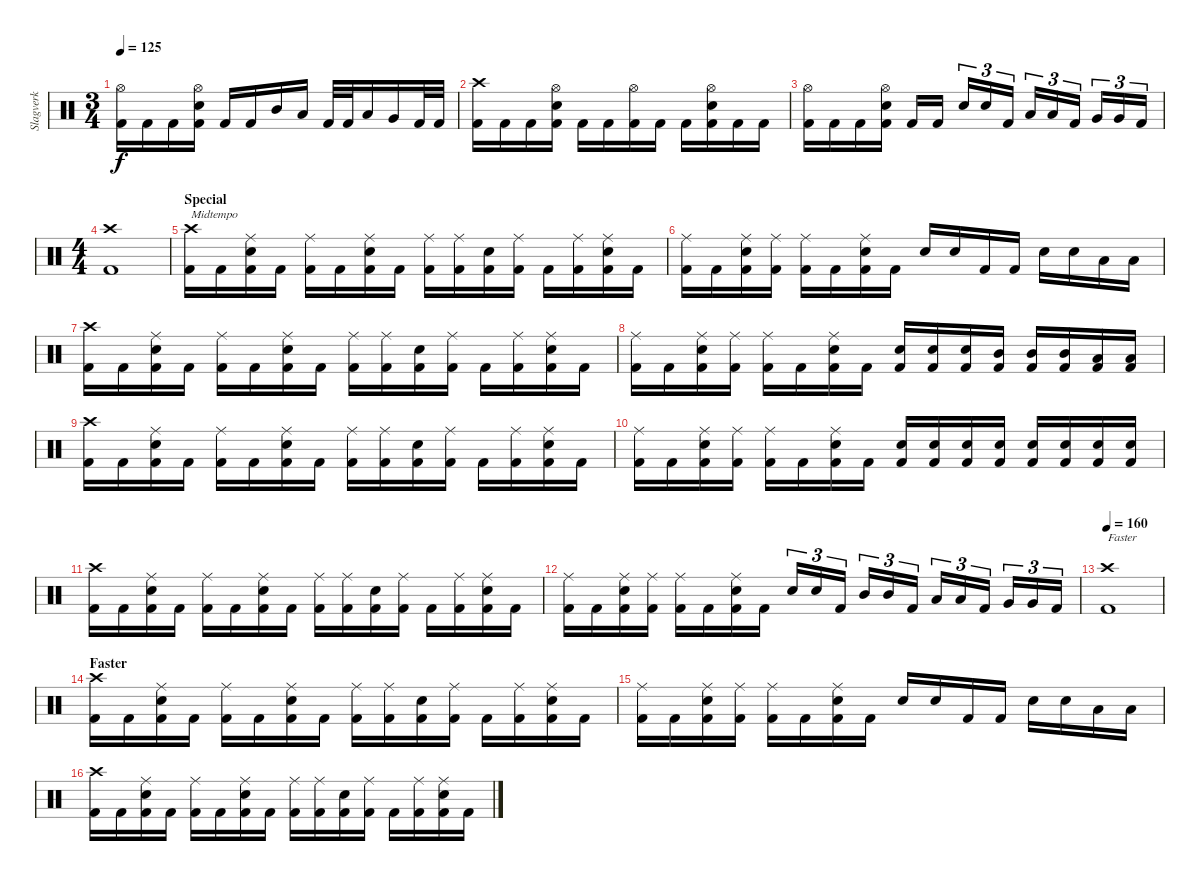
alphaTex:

\track ("Slagverk" "Slagverk") {instrument percussion}
\staff {score}
\articulation defaults
\ts (3 4)
\tempo 125
\clef neutral
\ks c
("Hi-Hat (open)" "Kick (hit) 2").16{dy f} "Kick (hit) 2".16 "Kick (hit) 2".16 ("Hi-Hat (open)" "Snare (hit) 2" "Kick (hit) 2").16 "Kick (hit) 2".16 "Kick (hit) 2".16 "Mid Tom (hit)".16 "Low Tom (hit)".16 "Kick (hit) 2".32 "Kick (hit) 2".32 "Low Tom (hit)".16 "Very Low Tom (hit)".16 "Kick (hit) 2".32 "Kick (hit) 2".32 |
("Crash high (hit)" "Kick (hit) 2").16 "Kick (hit) 2".16 "Kick (hit) 2".16 ("Hi-Hat (open)" "Snare (hit) 2" "Kick (hit) 2").16 "Kick (hit) 2".16 "Kick (hit) 2".16 ("Hi-Hat (open)" "Kick (hit) 2").16 "Kick (hit) 2".16 "Kick (hit) 2".16 ("Hi-Hat (open)" "Snare (hit) 2" "Kick (hit) 2").16 "Kick (hit) 2".16 "Kick (hit) 2".16 |
("Hi-Hat (open)" "Kick (hit) 2").16 "Kick (hit) 2".16 "Kick (hit) 2".16 ("Hi-Hat (open)" "Snare (hit) 2" "Kick (hit) 2").16 "Kick (hit) 2".16 "Kick (hit) 2".16 "Snare (hit) 2".16{tu (3 2)} "Snare (hit) 2".16{tu (3 2)} "Kick (hit) 2".16{tu (3 2)} "Low Tom (hit)".16{tu (3 2)} "Low Tom (hit)".16{tu (3 2)} "Kick (hit) 2".16{tu (3 2)} "Very Low Tom (hit)".16{tu (3 2)} "Very Low Tom (hit)".16{tu (3 2)} "Kick (hit) 2".16{tu (3 2)} |
\ts (4 4)
("Crash high (hit)" "Kick (hit) 2").1 |
\section ("" "Special")
("Crash high (hit)" "Kick (hit) 2").16{txt "Midtempo"} "Kick (hit) 2".16 ("Ride (middle)" "Snare (hit) 2" "Kick (hit) 2").16 "Kick (hit) 2".16 ("Ride (middle)" "Kick (hit) 2").16 "Kick (hit) 2".16 ("Ride (middle)" "Snare (hit) 2" "Kick (hit) 2").16 "Kick (hit) 2".16 ("Ride (middle)" "Kick (hit) 2").16 ("Ride (middle)" "Kick (hit) 2").16 ("Snare (hit) 2" "Kick (hit) 2").16 ("Ride (middle)" "Kick (hit) 2").16 "Kick (hit) 2".16 ("Ride (middle)" "Kick (hit) 2").16 ("Ride (middle)" "Snare (hit) 2" "Kick (hit) 2").16 "Kick (hit) 2".16 |
("Ride (middle)" "Kick (hit) 2").16 "Kick (hit) 2".16 ("Ride (middle)" "Snare (hit) 2" "Kick (hit) 2").16 ("Ride (middle)" "Kick (hit) 2").16 ("Ride (middle)" "Kick (hit) 2").16 "Kick (hit) 2".16 ("Ride (middle)" "Snare (hit) 2" "Kick (hit) 2").16 "Kick (hit) 2".16 "Snare (hit) 2".16 "Snare (hit) 2".16 "Kick (hit) 2".16 "Kick (hit) 2".16 "Snare (hit) 2".16 "Snare (hit) 2".16 "Low Tom (hit)".16 "Low Tom (hit)".16 |
("Crash high (hit)" "Kick (hit) 2").16 "Kick (hit) 2".16 ("Ride (middle)" "Snare (hit) 2" "Kick (hit) 2").16 "Kick (hit) 2".16 ("Ride (middle)" "Kick (hit) 2").16 "Kick (hit) 2".16 ("Ride (middle)" "Snare (hit) 2" "Kick (hit) 2").16 "Kick (hit) 2".16 ("Ride (middle)" "Kick (hit) 2").16 ("Ride (middle)" "Kick (hit) 2").16 ("Snare (hit) 2" "Kick (hit) 2").16 ("Ride (middle)" "Kick (hit) 2").16 "Kick (hit) 2".16 ("Ride (middle)" "Kick (hit) 2").16 ("Ride (middle)" "Snare (hit) 2" "Kick (hit) 2").16 "Kick (hit) 2".16 |
("Ride (middle)" "Kick (hit) 2").16 "Kick (hit) 2".16 ("Ride (middle)" "Snare (hit) 2" "Kick (hit) 2").16 ("Ride (middle)" "Kick (hit) 2").16 ("Ride (middle)" "Kick (hit) 2").16 "Kick (hit) 2".16 ("Ride (middle)" "Snare (hit) 2" "Kick (hit) 2").16 "Kick (hit) 2".16 ("Snare (hit) 2" "Kick (hit) 2").16 ("Snare (hit) 2" "Kick (hit) 2").16 ("Snare (hit) 2" "Kick (hit) 2").16 ("Mid Tom (hit)" "Kick (hit) 2").16 ("Mid Tom (hit)" "Kick (hit) 2").16 ("Mid Tom (hit)" "Kick (hit) 2").16 ("Low Tom (hit)" "Kick (hit) 2").16 ("Low Tom (hit)" "Kick (hit) 2").16 |
("Crash high (hit)" "Kick (hit) 2").16 "Kick (hit) 2".16 ("Ride (middle)" "Snare (hit) 2" "Kick (hit) 2").16 "Kick (hit) 2".16 ("Ride (middle)" "Kick (hit) 2").16 "Kick (hit) 2".16 ("Ride (middle)" "Snare (hit) 2" "Kick (hit) 2").16 "Kick (hit) 2".16 ("Ride (middle)" "Kick (hit) 2").16 ("Ride (middle)" "Kick (hit) 2").16 ("Snare (hit) 2" "Kick (hit) 2").16 ("Ride (middle)" "Kick (hit) 2").16 "Kick (hit) 2".16 ("Ride (middle)" "Kick (hit) 2").16 ("Ride (middle)" "Snare (hit) 2" "Kick (hit) 2").16 "Kick (hit) 2".16 |
("Ride (middle)" "Kick (hit) 2").16 "Kick (hit) 2".16 ("Ride (middle)" "Snare (hit) 2" "Kick (hit) 2").16 ("Ride (middle)" "Kick (hit) 2").16 ("Ride (middle)" "Kick (hit) 2").16 "Kick (hit) 2".16 ("Ride (middle)" "Snare (hit) 2" "Kick (hit) 2").16 "Kick (hit) 2".16 ("Snare (hit) 2" "Kick (hit) 2").16 ("Snare (hit) 2" "Kick (hit) 2").16 ("Snare (hit) 2" "Kick (hit) 2").16 ("Snare (hit) 2" "Kick (hit) 2").16 ("Snare (hit) 2" "Kick (hit) 2").16 ("Snare (hit) 2" "Kick (hit) 2").16 ("Snare (hit) 2" "Kick (hit) 2").16 ("Snare (hit) 2" "Kick (hit) 2").16 |
("Crash high (hit)" "Kick (hit) 2").16 "Kick (hit) 2".16 ("Ride (middle)" "Snare (hit) 2" "Kick (hit) 2").16 "Kick (hit) 2".16 ("Ride (middle)" "Kick (hit) 2").16 "Kick (hit) 2".16 ("Ride (middle)" "Snare (hit) 2" "Kick (hit) 2").16 "Kick (hit) 2".16 ("Ride (middle)" "Kick (hit) 2").16 ("Ride (middle)" "Kick (hit) 2").16 ("Snare (hit) 2" "Kick (hit) 2").16 ("Ride (middle)" "Kick (hit) 2").16 "Kick (hit) 2".16 ("Ride (middle)" "Kick (hit) 2").16 ("Ride (middle)" "Snare (hit) 2" "Kick (hit) 2").16 "Kick (hit) 2".16 |
("Ride (middle)" "Kick (hit) 2").16 "Kick (hit) 2".16 ("Ride (middle)" "Snare (hit) 2" "Kick (hit) 2").16 ("Ride (middle)" "Kick (hit) 2").16 ("Ride (middle)" "Kick (hit) 2").16 "Kick (hit) 2".16 ("Ride (middle)" "Snare (hit) 2" "Kick (hit) 2").16 "Kick (hit) 2".16 "Snare (hit) 2".16{tu (3 2)} "Snare (hit) 2".16{tu (3 2)} "Kick (hit) 2".16{tu (3 2)} "Mid Tom (hit)".16{tu (3 2)} "Mid Tom (hit)".16{tu (3 2)} "Kick (hit) 2".16{tu (3 2)} "Low Tom (hit)".16{tu (3 2)} "Low Tom (hit)".16{tu (3 2)} "Kick (hit) 2".16{tu (3 2)} "Very Low Tom (hit)".16{tu (3 2)} "Very Low Tom (hit)".16{tu (3 2)} "Kick (hit) 2".16{tu (3 2)} |
\tempo 160
("Crash high (hit)" "Kick (hit) 2").1{txt "Faster"} |
\section ("" "Faster")
("Crash high (hit)" "Kick (hit) 2").16 "Kick (hit) 2".16 ("Ride (middle)" "Snare (hit) 2" "Kick (hit) 2").16 "Kick (hit) 2".16 ("Ride (middle)" "Kick (hit) 2").16 "Kick (hit) 2".16 ("Ride (middle)" "Snare (hit) 2" "Kick (hit) 2").16 "Kick (hit) 2".16 ("Ride (middle)" "Kick (hit) 2").16 ("Ride (middle)" "Kick (hit) 2").16 ("Snare (hit) 2" "Kick (hit) 2").16 ("Ride (middle)" "Kick (hit) 2").16 "Kick (hit) 2".16 ("Ride (middle)" "Kick (hit) 2").16 ("Ride (middle)" "Snare (hit) 2" "Kick (hit) 2").16 "Kick (hit) 2".16 |
("Ride (middle)" "Kick (hit) 2").16 "Kick (hit) 2".16 ("Ride (middle)" "Snare (hit) 2" "Kick (hit) 2").16 ("Ride (middle)" "Kick (hit) 2").16 ("Ride (middle)" "Kick (hit) 2").16 "Kick (hit) 2".16 ("Ride (middle)" "Snare (hit) 2" "Kick (hit) 2").16 "Kick (hit) 2".16 "Snare (hit) 2".16 "Snare (hit) 2".16 "Kick (hit) 2".16 "Kick (hit) 2".16 "Snare (hit) 2".16 "Snare (hit) 2".16 "Low Tom (hit)".16 "Low Tom (hit)".16 |
("Crash high (hit)" "Kick (hit) 2").16 "Kick (hit) 2".16 ("Ride (middle)" "Snare (hit) 2" "Kick (hit) 2").16 "Kick (hit) 2".16 ("Ride (middle)" "Kick (hit) 2").16 "Kick (hit) 2".16 ("Ride (middle)" "Snare (hit) 2" "Kick (hit) 2").16 "Kick (hit) 2".16 ("Ride (middle)" "Kick (hit) 2").16 ("Ride (middle)" "Kick (hit) 2").16 ("Snare (hit) 2" "Kick (hit) 2").16 ("Ride (middle)" "Kick (hit) 2").16 "Kick (hit) 2".16 ("Ride (middle)" "Kick (hit) 2").16 ("Ride (middle)" "Snare (hit) 2" "Kick (hit) 2").16 "Kick (hit) 2".16
